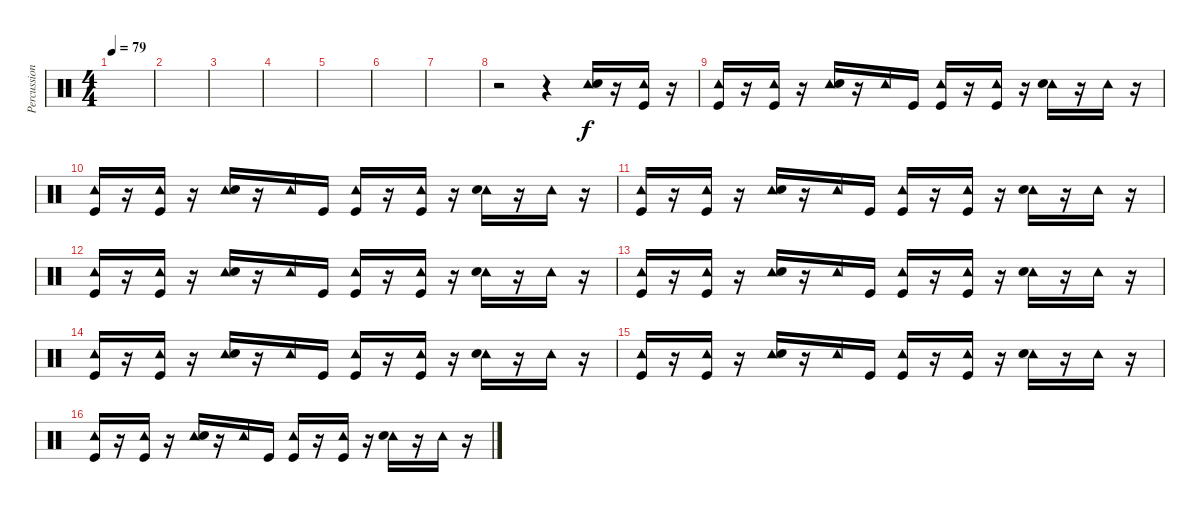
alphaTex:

\track ("Percussions" "Percussion") {instrument percussion}
\staff {score}
\articulation defaults
\ts (4 4)
\tempo 79
\clef neutral
\ks c
|
|
|
|
|
|
|
r.2 r.4 ("Tambourine (hit)" "Electric Snare (hit)").16 r.16 ("Tambourine (hit)" "Kick (hit)").16 r.16 |
("Tambourine (hit)" "Kick (hit)").16 r.16 ("Tambourine (hit)" "Kick (hit)").16 r.16 ("Tambourine (hit)" "Electric Snare (hit)").16 r.16 "Tambourine (hit)".16 "Kick (hit)".16 ("Tambourine (hit)" "Kick (hit)").16 r.16 ("Tambourine (hit)" "Kick (hit)").16 r.16 ("Tambourine (hit)" "Electric Snare (hit)").16 r.16 "Tambourine (hit)".16 r.16 |
("Tambourine (hit)" "Kick (hit)").16 r.16 ("Tambourine (hit)" "Kick (hit)").16 r.16 ("Tambourine (hit)" "Electric Snare (hit)").16 r.16 "Tambourine (hit)".16 "Kick (hit)".16 ("Tambourine (hit)" "Kick (hit)").16 r.16 ("Tambourine (hit)" "Kick (hit)").16 r.16 ("Tambourine (hit)" "Electric Snare (hit)").16 r.16 "Tambourine (hit)".16 r.16 |
("Tambourine (hit)" "Kick (hit)").16 r.16 ("Tambourine (hit)" "Kick (hit)").16 r.16 ("Tambourine (hit)" "Electric Snare (hit)").16 r.16 "Tambourine (hit)".16 "Kick (hit)".16 ("Tambourine (hit)" "Kick (hit)").16 r.16 ("Tambourine (hit)" "Kick (hit)").16 r.16 ("Tambourine (hit)" "Electric Snare (hit)").16 r.16 "Tambourine (hit)".16 r.16 |
("Tambourine (hit)" "Kick (hit)").16 r.16 ("Tambourine (hit)" "Kick (hit)").16 r.16 ("Tambourine (hit)" "Electric Snare (hit)").16 r.16 "Tambourine (hit)".16 "Kick (hit)".16 ("Tambourine (hit)" "Kick (hit)").16 r.16 ("Tambourine (hit)" "Kick (hit)").16 r.16 ("Tambourine (hit)" "Electric Snare (hit)").16 r.16 "Tambourine (hit)".16 r.16 |
("Tambourine (hit)" "Kick (hit)").16 r.16 ("Tambourine (hit)" "Kick (hit)").16 r.16 ("Tambourine (hit)" "Electric Snare (hit)").16 r.16 "Tambourine (hit)".16 "Kick (hit)".16 ("Tambourine (hit)" "Kick (hit)").16 r.16 ("Tambourine (hit)" "Kick (hit)").16 r.16 ("Tambourine (hit)" "Electric Snare (hit)").16 r.16 "Tambourine (hit)".16 r.16 |
("Tambourine (hit)" "Kick (hit)").16 r.16 ("Tambourine (hit)" "Kick (hit)").16 r.16 ("Tambourine (hit)" "Electric Snare (hit)").16 r.16 "Tambourine (hit)".16 "Kick (hit)".16 ("Tambourine (hit)" "Kick (hit)").16 r.16 ("Tambourine (hit)" "Kick (hit)").16 r.16 ("Tambourine (hit)" "Electric Snare (hit)").16 r.16 "Tambourine (hit)".16 r.16 |
("Tambourine (hit)" "Kick (hit)").16 r.16 ("Tambourine (hit)" "Kick (hit)").16 r.16 ("Tambourine (hit)" "Electric Snare (hit)").16 r.16 "Tambourine (hit)".16 "Kick (hit)".16 ("Tambourine (hit)" "Kick (hit)").16 r.16 ("Tambourine (hit)" "Kick (hit)").16 r.16 ("Tambourine (hit)" "Electric Snare (hit)").16 r.16 "Tambourine (hit)".16 r.16 |
("Tambourine (hit)" "Kick (hit)").16 r.16 ("Tambourine (hit)" "Kick (hit)").16 r.16 ("Tambourine (hit)" "Electric Snare (hit)").16 r.16 "Tambourine (hit)".16 "Kick (hit)".16 ("Tambourine (hit)" "Kick (hit)").16 r.16 ("Tambourine (hit)" "Kick (hit)").16 r.16 ("Tambourine (hit)" "Electric Snare (hit)").16 r.16 "Tambourine (hit)".16 r.16
